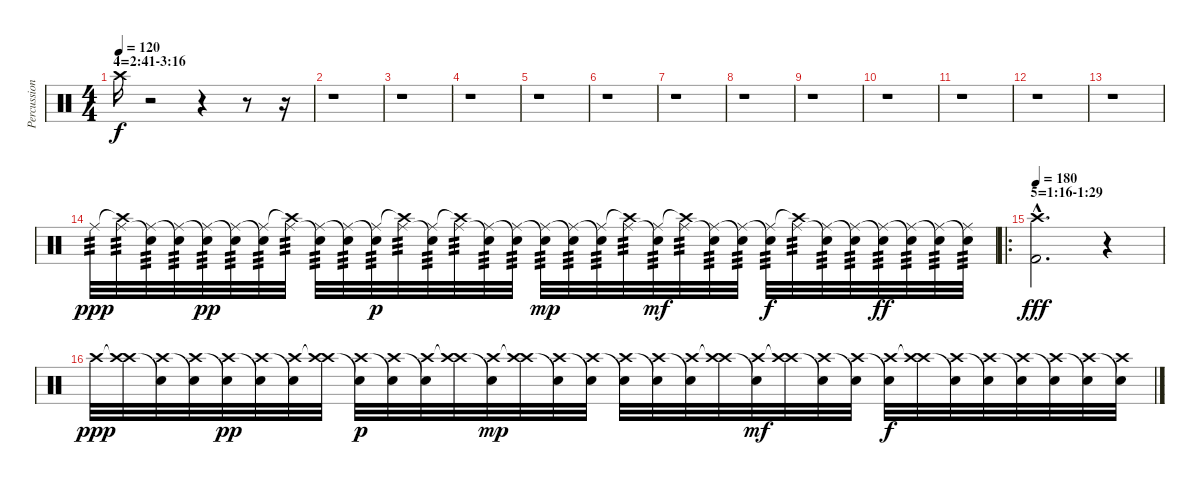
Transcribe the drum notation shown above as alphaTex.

\track ("Percussion" "Percussion") {instrument percussion}
\staff {score}
\articulation defaults
\ts (4 4)
\section ("" "4=2:41-3:16")
\tempo 120
\clef neutral
\ks c "Crash high (hit)".16{dy f}
r.2 r.4 r.8 r.16 |
r.1 |
r.1 |
r.1 |
r.1 |
r.1 |
r.1 |
r.1 |
r.1 |
r.1 |
r.1 |
r.1 |
r.1 |
"Ride (middle)".32{tp 3 dy ppp} ("Crash high (hit)"{t} "Ride (middle)").32{tp 3} ("Ride (middle)" "Snare (hit)"{t}).32{tp 3} ("Snare (hit)"{t} "Ride (middle)").32{tp 3} ("Ride (middle)" "Snare (hit)"{t}).32{tp 3 dy pp} ("Snare (hit)"{t} "Ride (middle)").32{tp 3} ("Ride (middle)" "Snare (hit)"{t}).32{tp 3} ("Crash high (hit)"{t} "Ride (middle)").32{tp 3} ("Ride (middle)" "Snare (hit)"{t}).32{tp 3} ("Snare (hit)"{t} "Ride (middle)").32{tp 3} ("Ride (middle)" "Snare (hit)"{t}).32{tp 3 dy p} ("Crash high (hit)"{t} "Ride (middle)").32{tp 3} ("Ride (middle)" "Snare (hit)"{t}).32{tp 3} ("Crash high (hit)"{t} "Ride (middle)").32{tp 3} ("Ride (middle)" "Snare (hit)"{t}).32{tp 3} ("Snare (hit)"{t} "Ride (middle)").32{tp 3} ("Ride (middle)" "Snare (hit)"{t}).32{tp 3 dy mp} ("Snare (hit)"{t} "Ride (middle)").32{tp 3} ("Ride (middle)" "Snare (hit)"{t}).32{tp 3} ("Crash high (hit)"{t} "Ride (middle)").32{tp 3} ("Ride (middle)" "Snare (hit)"{t}).32{tp 3 dy mf} ("Crash high (hit)"{t} "Ride (middle)").32{tp 3} ("Ride (middle)" "Snare (hit)"{t}).32{tp 3} ("Snare (hit)"{t} "Ride (middle)").32{tp 3} ("Ride (middle)" "Snare (hit)"{t}).32{tp 3 dy f} ("Crash high (hit)"{t} "Ride (middle)").32{tp 3} ("Ride (middle)" "Snare (hit)"{t}).32{tp 3} ("Snare (hit)"{t} "Ride (middle)").32{tp 3} ("Ride (middle)" "Snare (hit)"{t}).32{tp 3 dy ff} ("Snare (hit)"{t} "Ride (middle)").32{tp 3} ("Ride (middle)" "Snare (hit)"{t}).32{tp 3} ("Snare (hit)"{t} "Ride (middle)").32{tp 3} |
\ro
\section ("" "5=1:16-1:29")
\tempo 180
("Crash high (hit)"{hac} "Kick (hit) 2"{hac}).2{d dy fff} r.4 |
"Crash high (hit)".32{dy ppp} ("Crash high (hit)"{t} "Crash high (hit)").32 ("Crash high (hit)" "Snare (hit)"{t}).32 ("Snare (hit)"{t} "Crash high (hit)").32 ("Crash high (hit)" "Snare (hit)"{t}).32{dy pp} ("Snare (hit)"{t} "Crash high (hit)").32 ("Crash high (hit)" "Snare (hit)"{t}).32 ("Crash high (hit)"{t} "Crash high (hit)").32 ("Crash high (hit)" "Snare (hit)"{t}).32{dy p} ("Snare (hit)"{t} "Crash high (hit)").32 ("Crash high (hit)" "Snare (hit)"{t}).32 ("Crash high (hit)"{t} "Crash high (hit)").32 ("Crash high (hit)" "Snare (hit)"{t}).32{dy mp} ("Crash high (hit)"{t} "Crash high (hit)").32 ("Crash high (hit)" "Snare (hit)"{t}).32 ("Snare (hit)"{t} "Crash high (hit)").32 ("Crash high (hit)" "Snare (hit)"{t}).32 ("Snare (hit)"{t} "Crash high (hit)").32 ("Crash high (hit)" "Snare (hit)"{t}).32 ("Crash high (hit)"{t} "Crash high (hit)").32 ("Crash high (hit)" "Snare (hit)"{t}).32{dy mf} ("Crash high (hit)"{t} "Crash high (hit)").32 ("Crash high (hit)" "Snare (hit)"{t}).32 ("Snare (hit)"{t} "Crash high (hit)").32 ("Crash high (hit)" "Snare (hit)"{t}).32{dy f} ("Crash high (hit)"{t} "Crash high (hit)").32 ("Crash high (hit)" "Snare (hit)"{t}).32 ("Snare (hit)"{t} "Crash high (hit)").32 ("Crash high (hit)" "Snare (hit)"{t}).32 ("Snare (hit)"{t} "Crash high (hit)").32 ("Crash high (hit)" "Snare (hit)"{t}).32 ("Snare (hit)"{t} "Crash high (hit)").32
